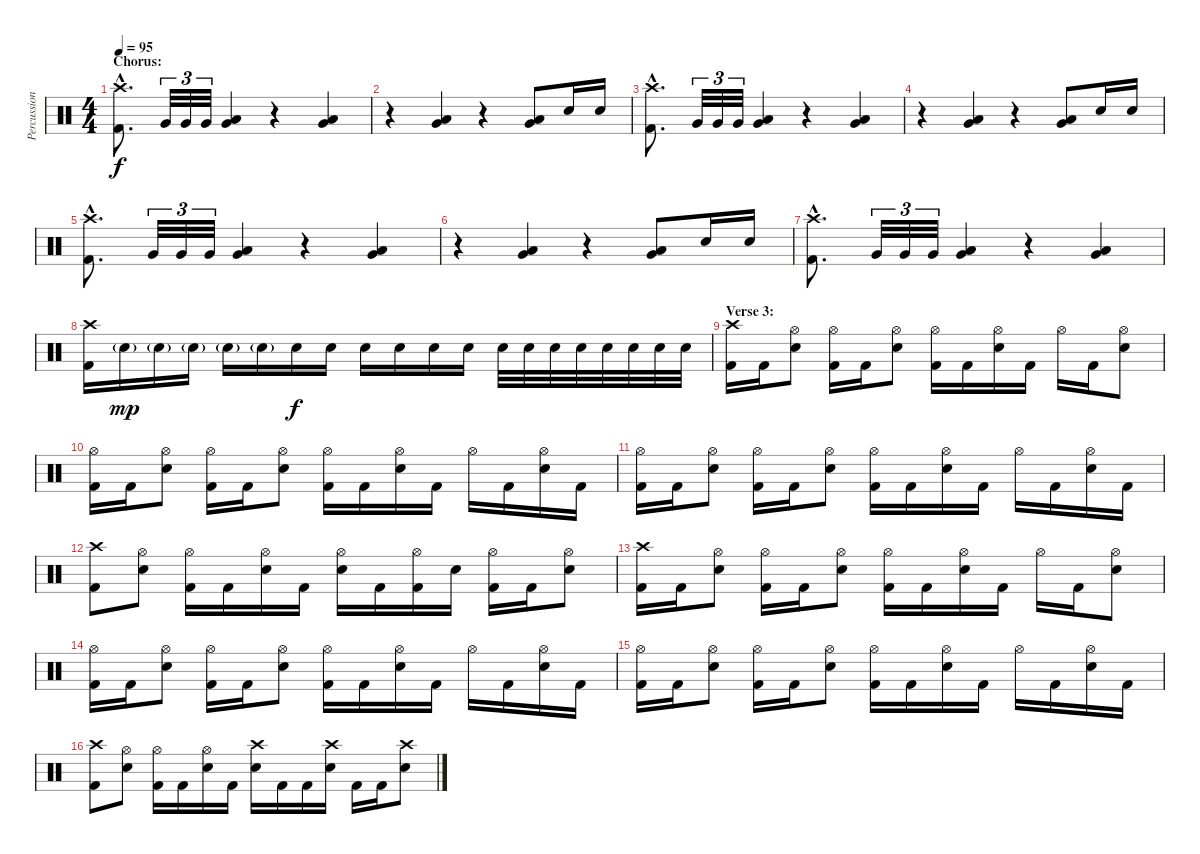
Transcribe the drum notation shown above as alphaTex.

\track ("Percussion" "Percussion") {instrument percussion}
\staff {score}
\articulation defaults
\ts (4 4)
\section ("" "Chorus:")
\tempo 95
\clef neutral
\ks c
("Crash high (hit)"{hac} "Kick (hit) 2"{hac}).8{d dy f} "Very Low Tom (hit)".32{tu (3 2)} "Very Low Tom (hit)".32{tu (3 2)} "Very Low Tom (hit)".32{tu (3 2)} ("Low Tom (hit)" "Very Low Tom (hit)").4 r.4 ("Low Tom (hit)" "Very Low Tom (hit)").4 |
r.4 ("Low Tom (hit)" "Very Low Tom (hit)").4 r.4 ("Low Tom (hit)" "Very Low Tom (hit)").8 "Electric Snare (hit)".16 "Electric Snare (hit)".16 |
("Crash high (hit)"{hac} "Kick (hit) 2"{hac}).8{d} "Very Low Tom (hit)".32{tu (3 2)} "Very Low Tom (hit)".32{tu (3 2)} "Very Low Tom (hit)".32{tu (3 2)} ("Low Tom (hit)" "Very Low Tom (hit)").4 r.4 ("Low Tom (hit)" "Very Low Tom (hit)").4 |
r.4 ("Low Tom (hit)" "Very Low Tom (hit)").4 r.4 ("Low Tom (hit)" "Very Low Tom (hit)").8 "Electric Snare (hit)".16 "Electric Snare (hit)".16 |
("Crash high (hit)"{hac} "Kick (hit) 2"{hac}).8{d} "Very Low Tom (hit)".32{tu (3 2)} "Very Low Tom (hit)".32{tu (3 2)} "Very Low Tom (hit)".32{tu (3 2)} ("Low Tom (hit)" "Very Low Tom (hit)").4 r.4 ("Low Tom (hit)" "Very Low Tom (hit)").4 |
r.4 ("Low Tom (hit)" "Very Low Tom (hit)").4 r.4 ("Low Tom (hit)" "Very Low Tom (hit)").8 "Electric Snare (hit)".16 "Electric Snare (hit)".16 |
("Crash high (hit)"{hac} "Kick (hit) 2"{hac}).8{d} "Very Low Tom (hit)".32{tu (3 2)} "Very Low Tom (hit)".32{tu (3 2)} "Very Low Tom (hit)".32{tu (3 2)} ("Low Tom (hit)" "Very Low Tom (hit)").4 r.4 ("Low Tom (hit)" "Very Low Tom (hit)").4 |
("Crash high (hit)" "Kick (hit) 2").16 "Electric Snare (hit)"{g}.16{dy mp} "Electric Snare (hit)"{g}.16 "Electric Snare (hit)"{g}.16 "Electric Snare (hit)"{g}.16 "Electric Snare (hit)"{g}.16 "Electric Snare (hit)".16{dy f} "Electric Snare (hit)".16 "Electric Snare (hit)".16 "Electric Snare (hit)".16 "Electric Snare (hit)".16 "Electric Snare (hit)".16 "Electric Snare (hit)".32 "Electric Snare (hit)".32 "Electric Snare (hit)".32 "Electric Snare (hit)".32 "Electric Snare (hit)".32 "Electric Snare (hit)".32 "Electric Snare (hit)".32 "Electric Snare (hit)".32 |
\section ("" "Verse 3:")
("Crash high (hit)" "Kick (hit) 2").16 "Kick (hit) 2".16 ("Hi-Hat (open)" "Electric Snare (hit)").8 ("Hi-Hat (open)" "Kick (hit) 2").16 "Kick (hit) 2".16 ("Hi-Hat (open)" "Electric Snare (hit)").8 ("Hi-Hat (open)" "Kick (hit) 2").16 "Kick (hit) 2".16 ("Hi-Hat (open)" "Electric Snare (hit)").16 "Kick (hit) 2".16 "Hi-Hat (open)".16 "Kick (hit) 2".16 ("Hi-Hat (open)" "Electric Snare (hit)").8 |
("Hi-Hat (open)" "Kick (hit) 2").16 "Kick (hit) 2".16 ("Hi-Hat (open)" "Electric Snare (hit)").8 ("Hi-Hat (open)" "Kick (hit) 2").16 "Kick (hit) 2".16 ("Hi-Hat (open)" "Electric Snare (hit)").8 ("Hi-Hat (open)" "Kick (hit) 2").16 "Kick (hit) 2".16 ("Hi-Hat (open)" "Electric Snare (hit)").16 "Kick (hit) 2".16 "Hi-Hat (open)".16 "Kick (hit) 2".16 ("Hi-Hat (open)" "Electric Snare (hit)").16 "Kick (hit) 2".16 |
("Hi-Hat (open)" "Kick (hit) 2").16 "Kick (hit) 2".16 ("Hi-Hat (open)" "Electric Snare (hit)").8 ("Hi-Hat (open)" "Kick (hit) 2").16 "Kick (hit) 2".16 ("Hi-Hat (open)" "Electric Snare (hit)").8 ("Hi-Hat (open)" "Kick (hit) 2").16 "Kick (hit) 2".16 ("Hi-Hat (open)" "Electric Snare (hit)").16 "Kick (hit) 2".16 "Hi-Hat (open)".16 "Kick (hit) 2".16 ("Hi-Hat (open)" "Electric Snare (hit)").16 "Kick (hit) 2".16 |
("Crash high (hit)" "Kick (hit) 2").8 ("Hi-Hat (open)" "Electric Snare (hit)").8 ("Hi-Hat (open)" "Kick (hit) 2").16 "Kick (hit) 2".16 ("Hi-Hat (open)" "Electric Snare (hit)").16 "Kick (hit) 2".16 ("Hi-Hat (open)" "Electric Snare (hit)").16 "Kick (hit) 2".16 ("Hi-Hat (open)" "Kick (hit) 2").16 "Electric Snare (hit)".16 ("Hi-Hat (open)" "Kick (hit) 2").16 "Kick (hit) 2".16 ("Hi-Hat (open)" "Electric Snare (hit)").8 |
("Crash high (hit)" "Kick (hit) 2").16 "Kick (hit) 2".16 ("Hi-Hat (open)" "Electric Snare (hit)").8 ("Hi-Hat (open)" "Kick (hit) 2").16 "Kick (hit) 2".16 ("Hi-Hat (open)" "Electric Snare (hit)").8 ("Hi-Hat (open)" "Kick (hit) 2").16 "Kick (hit) 2".16 ("Hi-Hat (open)" "Electric Snare (hit)").16 "Kick (hit) 2".16 "Hi-Hat (open)".16 "Kick (hit) 2".16 ("Hi-Hat (open)" "Electric Snare (hit)").8 |
("Hi-Hat (open)" "Kick (hit) 2").16 "Kick (hit) 2".16 ("Hi-Hat (open)" "Electric Snare (hit)").8 ("Hi-Hat (open)" "Kick (hit) 2").16 "Kick (hit) 2".16 ("Hi-Hat (open)" "Electric Snare (hit)").8 ("Hi-Hat (open)" "Kick (hit) 2").16 "Kick (hit) 2".16 ("Hi-Hat (open)" "Electric Snare (hit)").16 "Kick (hit) 2".16 "Hi-Hat (open)".16 "Kick (hit) 2".16 ("Hi-Hat (open)" "Electric Snare (hit)").16 "Kick (hit) 2".16 |
("Hi-Hat (open)" "Kick (hit) 2").16 "Kick (hit) 2".16 ("Hi-Hat (open)" "Electric Snare (hit)").8 ("Hi-Hat (open)" "Kick (hit) 2").16 "Kick (hit) 2".16 ("Hi-Hat (open)" "Electric Snare (hit)").8 ("Hi-Hat (open)" "Kick (hit) 2").16 "Kick (hit) 2".16 ("Hi-Hat (open)" "Electric Snare (hit)").16 "Kick (hit) 2".16 "Hi-Hat (open)".16 "Kick (hit) 2".16 ("Hi-Hat (open)" "Electric Snare (hit)").16 "Kick (hit) 2".16 |
("Crash high (hit)" "Kick (hit) 2").8 ("Hi-Hat (open)" "Electric Snare (hit)").8 ("Hi-Hat (open)" "Kick (hit) 2").16 "Kick (hit) 2".16 ("Hi-Hat (open)" "Electric Snare (hit)").16 "Kick (hit) 2".16 ("Crash high (hit)" "Electric Snare (hit)").16 "Kick (hit) 2".16 "Kick (hit) 2".16 ("Crash high (hit)" "Electric Snare (hit)").16 "Kick (hit) 2".16 "Kick (hit) 2".16 ("Crash high (hit)" "Electric Snare (hit)").8
